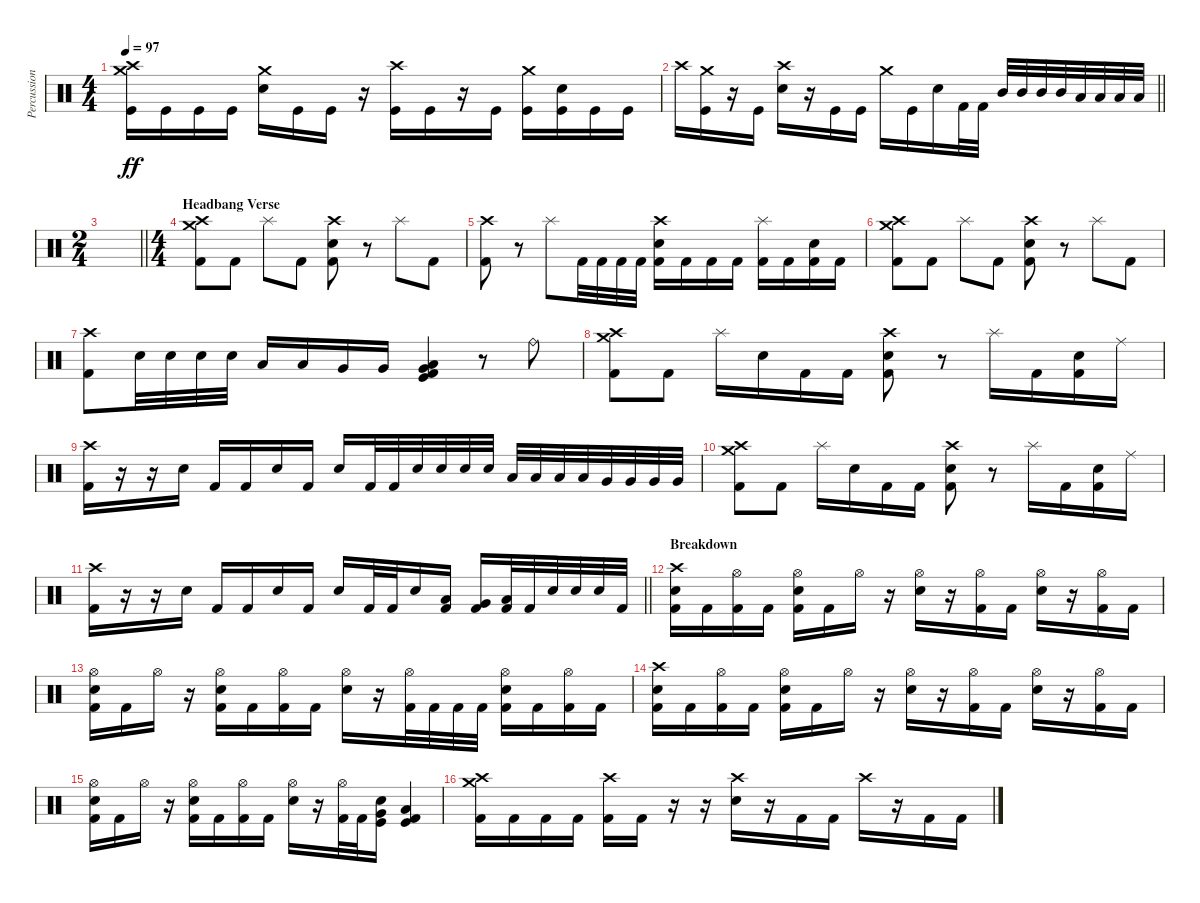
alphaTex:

\track ("Percussion" "Percussion") {instrument percussion}
\staff {score}
\articulation defaults
\ts (4 4)
\tempo 97
\clef neutral
\ks c
("Crash high (hit)" "Crash medium (hit)" "Kick (hit)").16{dy ff} "Kick (hit)".16 "Kick (hit)".16 "Kick (hit)".16 ("Crash medium (hit)" "Electric Snare (hit)").16 "Kick (hit)".16 "Kick (hit)".16 r.16 ("Crash high (hit)" "Kick (hit)").16 "Kick (hit)".16 r.16 "Kick (hit)".16 ("Crash medium (hit)" "Kick (hit)").16 ("Electric Snare (hit)" "Kick (hit)").16 "Kick (hit)".16 "Kick (hit)".16 |
\barLineRight lightlight "Crash high (hit)".16
("Crash medium (hit)" "Kick (hit)").16 r.16 "Kick (hit)".16 ("Crash high (hit)" "Electric Snare (hit)").16 r.16 "Kick (hit)".16 "Kick (hit)".16 "Crash medium (hit)".16 "Kick (hit)".16 "Electric Snare (hit)".16 "Kick (hit) 2".32 "Kick (hit) 2".32 "Mid Tom (hit)".32 "Mid Tom (hit)".32 "Mid Tom (hit)".32 "Mid Tom (hit)".32 "Low Tom (hit)".32 "Low Tom (hit)".32 "Low Tom (hit)".32 "Low Tom (hit)".32 |
\ts (2 4)
\barLineRight lightlight
|
\ts (4 4)
\section ("" "Headbang Verse")
("Crash high (hit)" "Crash medium (hit)" "Kick (hit) 2").8 "Kick (hit) 2".8 "Splash (hit)".8 "Kick (hit) 2".8 ("Crash high (hit)" "Electric Snare (hit)" "Kick (hit) 2").8 r.8 "Splash (hit)".8 "Kick (hit) 2".8 |
("Crash high (hit)" "Kick (hit) 2").8 r.8 "Splash (hit)".8 "Kick (hit) 2".32 "Kick (hit) 2".32 "Kick (hit) 2".32 "Kick (hit) 2".32 ("Crash high (hit)" "Electric Snare (hit)" "Kick (hit) 2").16 "Kick (hit) 2".16 "Kick (hit) 2".16 "Kick (hit) 2".16 ("Splash (hit)" "Kick (hit) 2").16 "Kick (hit) 2".16 ("Electric Snare (hit)" "Kick (hit) 2").16 "Kick (hit) 2".16 |
("Crash high (hit)" "Crash medium (hit)" "Kick (hit) 2").8 "Kick (hit) 2".8 "Splash (hit)".8 "Kick (hit) 2".8 ("Crash high (hit)" "Electric Snare (hit)" "Kick (hit) 2").8 r.8 "Splash (hit)".8 "Kick (hit) 2".8 |
("Crash high (hit)" "Kick (hit) 2").8 "Electric Snare (hit)".32 "Electric Snare (hit)".32 "Electric Snare (hit)".32 "Electric Snare (hit)".32 "Low Tom (hit)".16 "Low Tom (hit)".16 "Very Low Tom (hit)".16 "Very Low Tom (hit)".16 ("Very Low Tom (hit)" "Low Floor Tom (hit)" "Kick (hit)" "Kick (hit) 2").4 r.8 "Ride (bell)".8 |
("Crash high (hit)" "Crash medium (hit)" "Kick (hit) 2").8 "Kick (hit) 2".8 "Splash (hit)".16 "Electric Snare (hit)".16 "Kick (hit) 2".16 "Kick (hit) 2".16 ("Crash high (hit)" "Electric Snare (hit)" "Kick (hit) 2").8 r.8 "Splash (hit)".16 "Kick (hit) 2".16 ("Electric Snare (hit)" "Kick (hit) 2").16 "Ride (middle)".16 |
("Crash high (hit)" "Kick (hit) 2").16 r.16 r.16 "Electric Snare (hit)".16 "Kick (hit) 2".16 "Kick (hit) 2".16 "Electric Snare (hit)".16 "Kick (hit) 2".16 "Electric Snare (hit)".16 "Kick (hit) 2".32 "Kick (hit) 2".32 "Electric Snare (hit)".32 "Electric Snare (hit)".32 "Electric Snare (hit)".32 "Electric Snare (hit)".32 "Low Tom (hit)".32 "Low Tom (hit)".32 "Low Tom (hit)".32 "Low Tom (hit)".32 "Very Low Tom (hit)".32 "Very Low Tom (hit)".32 "Very Low Tom (hit)".32 "Very Low Tom (hit)".32 |
("Crash high (hit)" "Crash medium (hit)" "Kick (hit) 2").8 "Kick (hit) 2".8 "Splash (hit)".16 "Electric Snare (hit)".16 "Kick (hit) 2".16 "Kick (hit) 2".16 ("Crash high (hit)" "Electric Snare (hit)" "Kick (hit) 2").8 r.8 "Splash (hit)".16 "Kick (hit) 2".16 ("Electric Snare (hit)" "Kick (hit) 2").16 "Ride (middle)".16 |
\barLineRight lightlight
("Crash high (hit)" "Kick (hit) 2").16 r.16 r.16 "Electric Snare (hit)".16 "Kick (hit) 2".16 "Kick (hit) 2".16 "Electric Snare (hit)".16 "Kick (hit) 2".16 "Electric Snare (hit)".16 "Kick (hit) 2".32 "Kick (hit) 2".32 "Electric Snare (hit)".16 ("Low Tom (hit)" "Kick (hit) 2").16 ("Very Low Tom (hit)" "Kick (hit) 2").16 ("Low Floor Tom (hit)" "Kick (hit) 2").32 "Kick (hit) 2".32 "Electric Snare (hit)".32 "Electric Snare (hit)".32 "Electric Snare (hit)".32 "Kick (hit) 2".32 |
\section ("" "Breakdown")
("Crash high (hit)" "Electric Snare (hit)" "Kick (hit) 2").16 "Kick (hit) 2".16 ("Hi-Hat (open)" "Kick (hit) 2").16 "Kick (hit) 2".16 ("Hi-Hat (open)" "Electric Snare (hit)" "Kick (hit) 2").16 "Kick (hit) 2".16 "Hi-Hat (open)".16 r.16 ("Hi-Hat (open)" "Electric Snare (hit)").16 r.16 ("Hi-Hat (open)" "Kick (hit) 2").16 "Kick (hit) 2".16 ("Hi-Hat (open)" "Electric Snare (hit)").16 r.16 ("Hi-Hat (open)" "Kick (hit) 2").16 "Kick (hit) 2".16 |
("Hi-Hat (open)" "Electric Snare (hit)" "Kick (hit) 2").16 "Kick (hit) 2".16 "Hi-Hat (open)".16 r.16 ("Hi-Hat (open)" "Electric Snare (hit)" "Kick (hit) 2").16 "Kick (hit) 2".16 ("Hi-Hat (open)" "Kick (hit) 2").16 "Kick (hit) 2".16 ("Hi-Hat (open)" "Electric Snare (hit)").16 r.16 ("Hi-Hat (open)" "Kick (hit) 2").32 "Kick (hit) 2".32 "Kick (hit) 2".32 "Kick (hit) 2".32 ("Hi-Hat (open)" "Electric Snare (hit)" "Kick (hit) 2").16 "Kick (hit) 2".16 ("Hi-Hat (open)" "Kick (hit) 2").16 "Kick (hit) 2".16 |
("Crash high (hit)" "Electric Snare (hit)" "Kick (hit) 2").16 "Kick (hit) 2".16 ("Hi-Hat (open)" "Kick (hit) 2").16 "Kick (hit) 2".16 ("Hi-Hat (open)" "Electric Snare (hit)" "Kick (hit) 2").16 "Kick (hit) 2".16 "Hi-Hat (open)".16 r.16 ("Hi-Hat (open)" "Electric Snare (hit)").16 r.16 ("Hi-Hat (open)" "Kick (hit) 2").16 "Kick (hit) 2".16 ("Hi-Hat (open)" "Electric Snare (hit)").16 r.16 ("Hi-Hat (open)" "Kick (hit) 2").16 "Kick (hit) 2".16 |
("Hi-Hat (open)" "Electric Snare (hit)" "Kick (hit) 2").16 "Kick (hit) 2".16 "Hi-Hat (open)".16 r.16 ("Hi-Hat (open)" "Electric Snare (hit)" "Kick (hit) 2").16 "Kick (hit) 2".16 ("Hi-Hat (open)" "Kick (hit) 2").16 "Kick (hit) 2".16 ("Hi-Hat (open)" "Electric Snare (hit)").16 r.16 ("Hi-Hat (open)" "Kick (hit) 2").32 "Kick (hit) 2".32 ("Electric Snare (hit)" "Kick (hit)" "Very Low Tom (hit)").16 ("Kick (hit)" "Low Floor Tom (hit)" "Kick (hit) 2").4 |
("Crash high (hit)" "Crash medium (hit)" "Kick (hit) 2").16 "Kick (hit) 2".16 "Kick (hit) 2".16 "Kick (hit) 2".16 ("Crash high (hit)" "Kick (hit) 2").16 "Kick (hit) 2".16 r.16 r.16 ("Crash high (hit)" "Electric Snare (hit)").16 r.16 "Kick (hit) 2".16 "Kick (hit) 2".16 "Crash high (hit)".16 r.16 "Kick (hit) 2".16 "Kick (hit) 2".16
